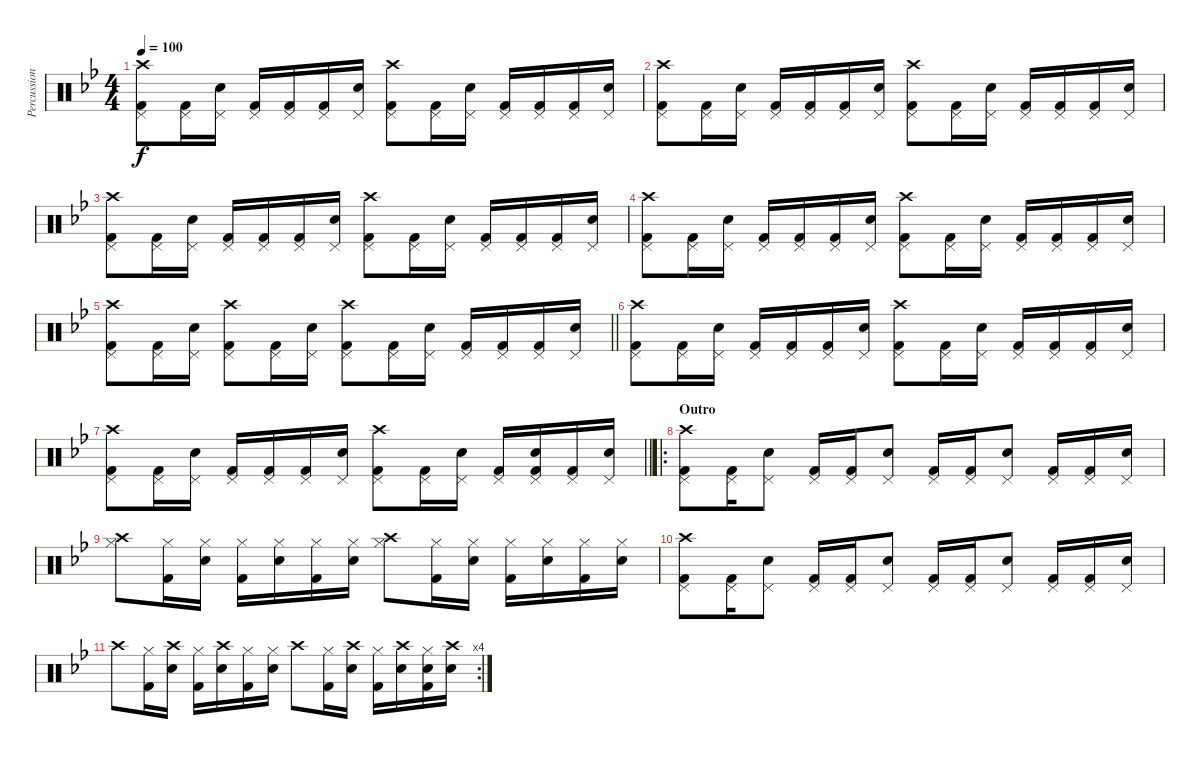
\track ("Percussion" "Percussion") {instrument percussion}
\staff {score}
\articulation defaults
\ts (4 4)
\tempo 100
\clef neutral
\ks bb
("Crash high (hit)" "Pedal Hi-Hat (hit)" "Kick (hit) 2").8{dy f} ("Pedal Hi-Hat (hit)" "Kick (hit) 2").16 ("Electric Snare (hit)" "Pedal Hi-Hat (hit)").16 ("Pedal Hi-Hat (hit)" "Kick (hit) 2").16 ("Pedal Hi-Hat (hit)" "Kick (hit) 2").16 ("Pedal Hi-Hat (hit)" "Kick (hit) 2").16 ("Electric Snare (hit)" "Pedal Hi-Hat (hit)").16 ("Crash high (hit)" "Pedal Hi-Hat (hit)" "Kick (hit) 2").8 ("Pedal Hi-Hat (hit)" "Kick (hit) 2").16 ("Electric Snare (hit)" "Pedal Hi-Hat (hit)").16 ("Pedal Hi-Hat (hit)" "Kick (hit) 2").16 ("Pedal Hi-Hat (hit)" "Kick (hit) 2").16 ("Pedal Hi-Hat (hit)" "Kick (hit) 2").16 ("Electric Snare (hit)" "Pedal Hi-Hat (hit)").16 |
("Crash high (hit)" "Pedal Hi-Hat (hit)" "Kick (hit) 2").8 ("Pedal Hi-Hat (hit)" "Kick (hit) 2").16 ("Electric Snare (hit)" "Pedal Hi-Hat (hit)").16 ("Pedal Hi-Hat (hit)" "Kick (hit) 2").16 ("Pedal Hi-Hat (hit)" "Kick (hit) 2").16 ("Pedal Hi-Hat (hit)" "Kick (hit) 2").16 ("Electric Snare (hit)" "Pedal Hi-Hat (hit)").16 ("Crash high (hit)" "Pedal Hi-Hat (hit)" "Kick (hit) 2").8 ("Pedal Hi-Hat (hit)" "Kick (hit) 2").16 ("Electric Snare (hit)" "Pedal Hi-Hat (hit)").16 ("Pedal Hi-Hat (hit)" "Kick (hit) 2").16 ("Pedal Hi-Hat (hit)" "Kick (hit) 2").16 ("Pedal Hi-Hat (hit)" "Kick (hit) 2").16 ("Electric Snare (hit)" "Pedal Hi-Hat (hit)").16 |
("Crash high (hit)" "Pedal Hi-Hat (hit)" "Kick (hit) 2").8 ("Pedal Hi-Hat (hit)" "Kick (hit) 2").16 ("Electric Snare (hit)" "Pedal Hi-Hat (hit)").16 ("Pedal Hi-Hat (hit)" "Kick (hit) 2").16 ("Pedal Hi-Hat (hit)" "Kick (hit) 2").16 ("Pedal Hi-Hat (hit)" "Kick (hit) 2").16 ("Electric Snare (hit)" "Pedal Hi-Hat (hit)").16 ("Crash high (hit)" "Pedal Hi-Hat (hit)" "Kick (hit) 2").8 ("Pedal Hi-Hat (hit)" "Kick (hit) 2").16 ("Electric Snare (hit)" "Pedal Hi-Hat (hit)").16 ("Pedal Hi-Hat (hit)" "Kick (hit) 2").16 ("Pedal Hi-Hat (hit)" "Kick (hit) 2").16 ("Pedal Hi-Hat (hit)" "Kick (hit) 2").16 ("Electric Snare (hit)" "Pedal Hi-Hat (hit)").16 |
("Crash high (hit)" "Pedal Hi-Hat (hit)" "Kick (hit) 2").8 ("Pedal Hi-Hat (hit)" "Kick (hit) 2").16 ("Electric Snare (hit)" "Pedal Hi-Hat (hit)").16 ("Pedal Hi-Hat (hit)" "Kick (hit) 2").16 ("Pedal Hi-Hat (hit)" "Kick (hit) 2").16 ("Pedal Hi-Hat (hit)" "Kick (hit) 2").16 ("Electric Snare (hit)" "Pedal Hi-Hat (hit)").16 ("Crash high (hit)" "Pedal Hi-Hat (hit)" "Kick (hit) 2").8 ("Pedal Hi-Hat (hit)" "Kick (hit) 2").16 ("Electric Snare (hit)" "Pedal Hi-Hat (hit)").16 ("Pedal Hi-Hat (hit)" "Kick (hit) 2").16 ("Pedal Hi-Hat (hit)" "Kick (hit) 2").16 ("Pedal Hi-Hat (hit)" "Kick (hit) 2").16 ("Electric Snare (hit)" "Pedal Hi-Hat (hit)").16 |
\barLineRight lightlight
("Crash high (hit)" "Pedal Hi-Hat (hit)" "Kick (hit) 2").8 ("Pedal Hi-Hat (hit)" "Kick (hit) 2").16 ("Electric Snare (hit)" "Pedal Hi-Hat (hit)").16 ("Crash high (hit)" "Pedal Hi-Hat (hit)" "Kick (hit) 2").8 ("Pedal Hi-Hat (hit)" "Kick (hit) 2").16 ("Electric Snare (hit)" "Pedal Hi-Hat (hit)").16 ("Crash high (hit)" "Pedal Hi-Hat (hit)" "Kick (hit) 2").8 ("Pedal Hi-Hat (hit)" "Kick (hit) 2").16 ("Electric Snare (hit)" "Pedal Hi-Hat (hit)").16 ("Pedal Hi-Hat (hit)" "Kick (hit) 2").16 ("Pedal Hi-Hat (hit)" "Kick (hit) 2").16 ("Pedal Hi-Hat (hit)" "Kick (hit) 2").16 ("Electric Snare (hit)" "Pedal Hi-Hat (hit)").16 |
("Crash high (hit)" "Pedal Hi-Hat (hit)" "Kick (hit) 2").8 ("Pedal Hi-Hat (hit)" "Kick (hit) 2").16 ("Electric Snare (hit)" "Pedal Hi-Hat (hit)").16 ("Pedal Hi-Hat (hit)" "Kick (hit) 2").16 ("Pedal Hi-Hat (hit)" "Kick (hit) 2").16 ("Pedal Hi-Hat (hit)" "Kick (hit) 2").16 ("Electric Snare (hit)" "Pedal Hi-Hat (hit)").16 ("Crash high (hit)" "Pedal Hi-Hat (hit)" "Kick (hit) 2").8 ("Pedal Hi-Hat (hit)" "Kick (hit) 2").16 ("Electric Snare (hit)" "Pedal Hi-Hat (hit)").16 ("Pedal Hi-Hat (hit)" "Kick (hit) 2").16 ("Pedal Hi-Hat (hit)" "Kick (hit) 2").16 ("Pedal Hi-Hat (hit)" "Kick (hit) 2").16 ("Electric Snare (hit)" "Pedal Hi-Hat (hit)").16 |
\barLineRight lightlight
("Crash high (hit)" "Pedal Hi-Hat (hit)" "Kick (hit) 2").8 ("Pedal Hi-Hat (hit)" "Kick (hit) 2").16 ("Electric Snare (hit)" "Pedal Hi-Hat (hit)").16 ("Pedal Hi-Hat (hit)" "Kick (hit) 2").16 ("Pedal Hi-Hat (hit)" "Kick (hit) 2").16 ("Pedal Hi-Hat (hit)" "Kick (hit) 2").16 ("Electric Snare (hit)" "Pedal Hi-Hat (hit)").16 ("Crash high (hit)" "Pedal Hi-Hat (hit)" "Kick (hit) 2").8 ("Pedal Hi-Hat (hit)" "Kick (hit) 2").16 ("Electric Snare (hit)" "Pedal Hi-Hat (hit)").16 ("Pedal Hi-Hat (hit)" "Kick (hit) 2").16 ("Electric Snare (hit)" "Pedal Hi-Hat (hit)" "Kick (hit) 2").16 ("Pedal Hi-Hat (hit)" "Kick (hit) 2").16 ("Electric Snare (hit)" "Pedal Hi-Hat (hit)").16 |
\ro
\section ("" "Outro")
("Crash high (hit)" "Pedal Hi-Hat (hit)" "Kick (hit) 2").8 ("Pedal Hi-Hat (hit)" "Kick (hit) 2").16 ("Electric Snare (hit)" "Pedal Hi-Hat (hit)").8 ("Pedal Hi-Hat (hit)" "Kick (hit) 2").16 ("Pedal Hi-Hat (hit)" "Kick (hit) 2").16 ("Electric Snare (hit)" "Pedal Hi-Hat (hit)").8 ("Pedal Hi-Hat (hit)" "Kick (hit) 2").16 ("Pedal Hi-Hat (hit)" "Kick (hit) 2").16 ("Electric Snare (hit)" "Pedal Hi-Hat (hit)").8 ("Pedal Hi-Hat (hit)" "Kick (hit) 2").16 ("Pedal Hi-Hat (hit)" "Kick (hit) 2").16 ("Electric Snare (hit)" "Pedal Hi-Hat (hit)").16 |
("Crash high (hit)" "Hi-Hat (closed)").8 ("Hi-Hat (closed)" "Kick (hit) 2").16 ("Electric Snare (hit)" "Hi-Hat (closed)").16 ("Hi-Hat (closed)" "Kick (hit) 2").16 ("Electric Snare (hit)" "Hi-Hat (closed)").16 ("Hi-Hat (closed)" "Kick (hit) 2").16 ("Electric Snare (hit)" "Hi-Hat (closed)").16 ("Crash high (hit)" "Hi-Hat (closed)").8 ("Hi-Hat (closed)" "Kick (hit) 2").16 ("Electric Snare (hit)" "Hi-Hat (closed)").16 ("Hi-Hat (closed)" "Kick (hit) 2").16 ("Electric Snare (hit)" "Hi-Hat (closed)").16 ("Hi-Hat (closed)" "Kick (hit) 2").16 ("Electric Snare (hit)" "Hi-Hat (closed)").16 |
("Crash high (hit)" "Pedal Hi-Hat (hit)" "Kick (hit) 2").8 ("Pedal Hi-Hat (hit)" "Kick (hit) 2").16 ("Electric Snare (hit)" "Pedal Hi-Hat (hit)").8 ("Pedal Hi-Hat (hit)" "Kick (hit) 2").16 ("Pedal Hi-Hat (hit)" "Kick (hit) 2").16 ("Electric Snare (hit)" "Pedal Hi-Hat (hit)").8 ("Pedal Hi-Hat (hit)" "Kick (hit) 2").16 ("Pedal Hi-Hat (hit)" "Kick (hit) 2").16 ("Electric Snare (hit)" "Pedal Hi-Hat (hit)").8 ("Pedal Hi-Hat (hit)" "Kick (hit) 2").16 ("Pedal Hi-Hat (hit)" "Kick (hit) 2").16 ("Electric Snare (hit)" "Pedal Hi-Hat (hit)").16 |
\rc 4 "Crash high (hit)".8
("Hi-Hat (closed)" "Kick (hit) 2").16 ("Crash high (hit)" "Electric Snare (hit)").16 ("Hi-Hat (closed)" "Kick (hit) 2").16 ("Crash high (hit)" "Electric Snare (hit)").16 ("Hi-Hat (closed)" "Kick (hit) 2").16 ("Electric Snare (hit)" "Hi-Hat (closed)").16 "Crash high (hit)".8 ("Hi-Hat (closed)" "Kick (hit) 2").16 ("Crash high (hit)" "Electric Snare (hit)").16 ("Hi-Hat (closed)" "Kick (hit) 2").16 ("Crash high (hit)" "Electric Snare (hit)").16 ("Electric Snare (hit)" "Hi-Hat (closed)" "Kick (hit) 2").16 ("Crash high (hit)" "Electric Snare (hit)").16
